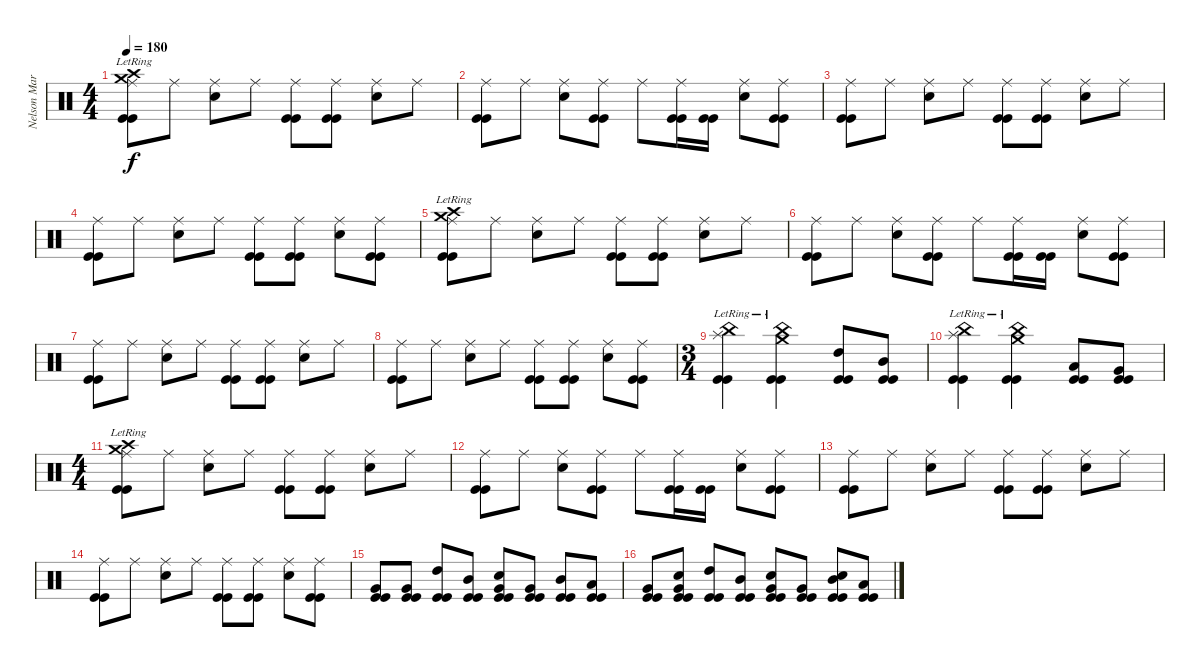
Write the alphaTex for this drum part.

\track ("Nelson Maria" "Nelson Mar") {instrument percussion}
\staff {score}
\articulation defaults
\ts (4 4)
\tempo 180
\clef neutral
\ks c
("Crash high (hit)"{lr} "Crash medium (hit)" "Ride (middle)" "Kick (hit)" "Kick (hit)").8{dy f} "Ride (middle)".8 ("Snare (hit) 2" "Ride (middle)").8 "Ride (middle)".8 ("Ride (middle)" "Kick (hit)" "Kick (hit)").8 ("Ride (middle)" "Kick (hit)" "Kick (hit)").8 ("Snare (hit) 2" "Ride (middle)").8 "Ride (middle)".8 |
("Ride (middle)" "Kick (hit)" "Kick (hit)").8 "Ride (middle)".8 ("Snare (hit) 2" "Ride (middle)").8 ("Ride (middle)" "Kick (hit)" "Kick (hit)").8 "Ride (middle)".8 ("Ride (middle)" "Kick (hit)" "Kick (hit)").16 ("Kick (hit)" "Kick (hit)").16 ("Snare (hit) 2" "Ride (middle)").8 ("Ride (middle)" "Kick (hit)" "Kick (hit)").8 |
("Ride (middle)" "Kick (hit)" "Kick (hit)").8 "Ride (middle)".8 ("Snare (hit) 2" "Ride (middle)").8 "Ride (middle)".8 ("Ride (middle)" "Kick (hit)" "Kick (hit)").8 ("Ride (middle)" "Kick (hit)" "Kick (hit)").8 ("Snare (hit) 2" "Ride (middle)").8 "Ride (middle)".8 |
("Ride (middle)" "Kick (hit)" "Kick (hit)").8 "Ride (middle)".8 ("Snare (hit) 2" "Ride (middle)").8 "Ride (middle)".8 ("Ride (middle)" "Kick (hit)" "Kick (hit)").8 ("Ride (middle)" "Kick (hit)" "Kick (hit)").8 ("Snare (hit) 2" "Ride (middle)").8 ("Ride (middle)" "Kick (hit)" "Kick (hit)").8 |
("Crash high (hit)"{lr} "Crash medium (hit)" "Ride (middle)" "Kick (hit)" "Kick (hit)").8 "Ride (middle)".8 ("Snare (hit) 2" "Ride (middle)").8 "Ride (middle)".8 ("Ride (middle)" "Kick (hit)" "Kick (hit)").8 ("Ride (middle)" "Kick (hit)" "Kick (hit)").8 ("Snare (hit) 2" "Ride (middle)").8 "Ride (middle)".8 |
("Ride (middle)" "Kick (hit)" "Kick (hit)").8 "Ride (middle)".8 ("Snare (hit) 2" "Ride (middle)").8 ("Ride (middle)" "Kick (hit)" "Kick (hit)").8 "Ride (middle)".8 ("Ride (middle)" "Kick (hit)" "Kick (hit)").16 ("Kick (hit)" "Kick (hit)").16 ("Snare (hit) 2" "Ride (middle)").8 ("Ride (middle)" "Kick (hit)" "Kick (hit)").8 |
("Ride (middle)" "Kick (hit)" "Kick (hit)").8 "Ride (middle)".8 ("Snare (hit) 2" "Ride (middle)").8 "Ride (middle)".8 ("Ride (middle)" "Kick (hit)" "Kick (hit)").8 ("Ride (middle)" "Kick (hit)" "Kick (hit)").8 ("Snare (hit) 2" "Ride (middle)").8 "Ride (middle)".8 |
("Ride (middle)" "Kick (hit)" "Kick (hit)").8 "Ride (middle)".8 ("Snare (hit) 2" "Ride (middle)").8 "Ride (middle)".8 ("Ride (middle)" "Kick (hit)" "Kick (hit)").8 ("Ride (middle)" "Kick (hit)" "Kick (hit)").8 ("Snare (hit) 2" "Ride (middle)").8 ("Ride (middle)" "Kick (hit)" "Kick (hit)").8 |
\ts (3 4)
("Splash (hit)"{lr} "China (hit)"{lr} "Kick (hit)" "Kick (hit)").4 ("Crash medium (hit)"{lr} "China (hit)"{lr} "Kick (hit)" "Kick (hit)").4 ("High Tom (hit)" "Kick (hit)" "Kick (hit)").8 ("Mid Tom (hit)" "Kick (hit)" "Kick (hit)").8 |
("Splash (hit)"{lr} "China (hit)"{lr} "Kick (hit)" "Kick (hit)").4 ("Crash medium (hit)"{lr} "China (hit)"{lr} "Kick (hit)" "Kick (hit)").4 ("Low Tom (hit)" "Kick (hit)" "Kick (hit)").8 ("Very Low Tom (hit)" "Kick (hit)" "Kick (hit)").8 |
\ts (4 4)
("Crash high (hit)"{lr} "Crash medium (hit)" "Ride (middle)" "Kick (hit)" "Kick (hit)").8 "Ride (middle)".8 ("Snare (hit) 2" "Ride (middle)").8 "Ride (middle)".8 ("Ride (middle)" "Kick (hit)" "Kick (hit)").8 ("Ride (middle)" "Kick (hit)" "Kick (hit)").8 ("Snare (hit) 2" "Ride (middle)").8 "Ride (middle)".8 |
("Ride (middle)" "Kick (hit)" "Kick (hit)").8 "Ride (middle)".8 ("Snare (hit) 2" "Ride (middle)").8 ("Ride (middle)" "Kick (hit)" "Kick (hit)").8 "Ride (middle)".8 ("Ride (middle)" "Kick (hit)" "Kick (hit)").16 ("Kick (hit)" "Kick (hit)").16 ("Snare (hit) 2" "Ride (middle)").8 ("Ride (middle)" "Kick (hit)" "Kick (hit)").8 |
("Ride (middle)" "Kick (hit)" "Kick (hit)").8 "Ride (middle)".8 ("Snare (hit) 2" "Ride (middle)").8 "Ride (middle)".8 ("Ride (middle)" "Kick (hit)" "Kick (hit)").8 ("Ride (middle)" "Kick (hit)" "Kick (hit)").8 ("Snare (hit) 2" "Ride (middle)").8 "Ride (middle)".8 |
("Ride (middle)" "Kick (hit)" "Kick (hit)").8 "Ride (middle)".8 ("Snare (hit) 2" "Ride (middle)").8 "Ride (middle)".8 ("Ride (middle)" "Kick (hit)" "Kick (hit)").8 ("Ride (middle)" "Kick (hit)" "Kick (hit)").8 ("Snare (hit) 2" "Ride (middle)").8 ("Ride (middle)" "Kick (hit)" "Kick (hit)").8 |
("Very Low Tom (hit)" "Kick (hit)" "Kick (hit)").8 ("Very Low Tom (hit)" "Kick (hit)" "Kick (hit)").8 ("High Tom (hit)" "Kick (hit)" "Kick (hit)").8 ("Mid Tom (hit)" "Kick (hit)" "Kick (hit)").8 ("Snare (hit) 2" "Very Low Tom (hit)" "Kick (hit)" "Kick (hit)").8 ("Very Low Tom (hit)" "Kick (hit)" "Kick (hit)").8 ("Mid Tom (hit)" "Kick (hit)" "Kick (hit)").8 ("Low Tom (hit)" "Kick (hit)" "Kick (hit)").8 |
("Very Low Tom (hit)" "Kick (hit)" "Kick (hit)").8 ("Snare (hit) 2" "Very Low Tom (hit)" "Kick (hit)" "Kick (hit)").8 ("High Tom (hit)" "Kick (hit)" "Kick (hit)").8 ("Mid Tom (hit)" "Kick (hit)" "Kick (hit)").8 ("Snare (hit) 2" "Very Low Tom (hit)" "Kick (hit)" "Kick (hit)").8 ("Very Low Tom (hit)" "Kick (hit)" "Kick (hit)").8 ("Snare (hit) 2" "Mid Tom (hit)" "Kick (hit)" "Kick (hit)").8 ("Low Tom (hit)" "Kick (hit)" "Kick (hit)").8
